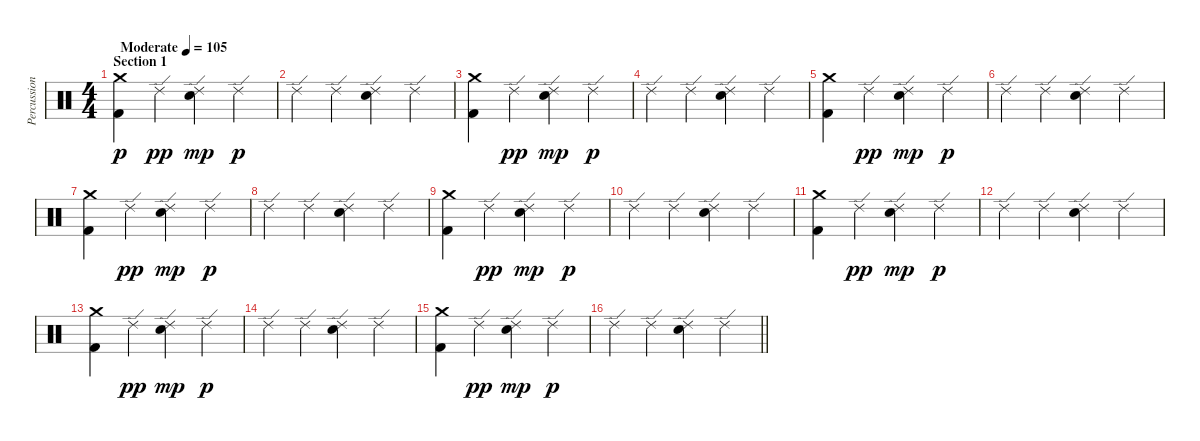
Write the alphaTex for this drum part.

\track ("Percussion" "Percussion") {instrument percussion}
\staff {score}
\articulation defaults
\ts (4 4)
\section ("" "Section 1")
\tempo (105 "Moderate")
\clef neutral
\ks c
("Crash medium (hit)" "Kick (hit) 2").4{dy p} "Ride (edge) 2".4{dy pp} ("Ride (edge) 2" "Snare (hit) 2").4{dy mp} "Ride (edge) 2".4{dy p} |
"Ride (edge) 2".4 "Ride (edge) 2".4 ("Ride (edge) 2" "Electric Snare (hit)").4 "Ride (edge) 2".4 |
("Crash medium (hit)" "Kick (hit) 2").4 "Ride (edge) 2".4{dy pp} ("Ride (edge) 2" "Snare (hit) 2").4{dy mp} "Ride (edge) 2".4{dy p} |
"Ride (edge) 2".4 "Ride (edge) 2".4 ("Ride (edge) 2" "Electric Snare (hit)").4 "Ride (edge) 2".4 |
("Crash medium (hit)" "Kick (hit) 2").4 "Ride (edge) 2".4{dy pp} ("Ride (edge) 2" "Snare (hit) 2").4{dy mp} "Ride (edge) 2".4{dy p} |
"Ride (edge) 2".4 "Ride (edge) 2".4 ("Ride (edge) 2" "Electric Snare (hit)").4 "Ride (edge) 2".4 |
("Crash medium (hit)" "Kick (hit) 2").4 "Ride (edge) 2".4{dy pp} ("Ride (edge) 2" "Snare (hit) 2").4{dy mp} "Ride (edge) 2".4{dy p} |
"Ride (edge) 2".4 "Ride (edge) 2".4 ("Ride (edge) 2" "Electric Snare (hit)").4 "Ride (edge) 2".4 |
("Crash medium (hit)" "Kick (hit) 2").4 "Ride (edge) 2".4{dy pp} ("Ride (edge) 2" "Snare (hit) 2").4{dy mp} "Ride (edge) 2".4{dy p} |
"Ride (edge) 2".4 "Ride (edge) 2".4 ("Ride (edge) 2" "Electric Snare (hit)").4 "Ride (edge) 2".4 |
("Crash medium (hit)" "Kick (hit) 2").4 "Ride (edge) 2".4{dy pp} ("Ride (edge) 2" "Snare (hit) 2").4{dy mp} "Ride (edge) 2".4{dy p} |
"Ride (edge) 2".4 "Ride (edge) 2".4 ("Ride (edge) 2" "Electric Snare (hit)").4 "Ride (edge) 2".4 |
("Crash medium (hit)" "Kick (hit) 2").4 "Ride (edge) 2".4{dy pp} ("Ride (edge) 2" "Snare (hit) 2").4{dy mp} "Ride (edge) 2".4{dy p} |
"Ride (edge) 2".4 "Ride (edge) 2".4 ("Ride (edge) 2" "Electric Snare (hit)").4 "Ride (edge) 2".4 |
("Crash medium (hit)" "Kick (hit) 2").4 "Ride (edge) 2".4{dy pp} ("Ride (edge) 2" "Snare (hit) 2").4{dy mp} "Ride (edge) 2".4{dy p} |
\barLineRight lightlight "Ride (edge) 2".4 "Ride (edge) 2".4
("Ride (edge) 2" "Electric Snare (hit)").4 "Ride (edge) 2".4
